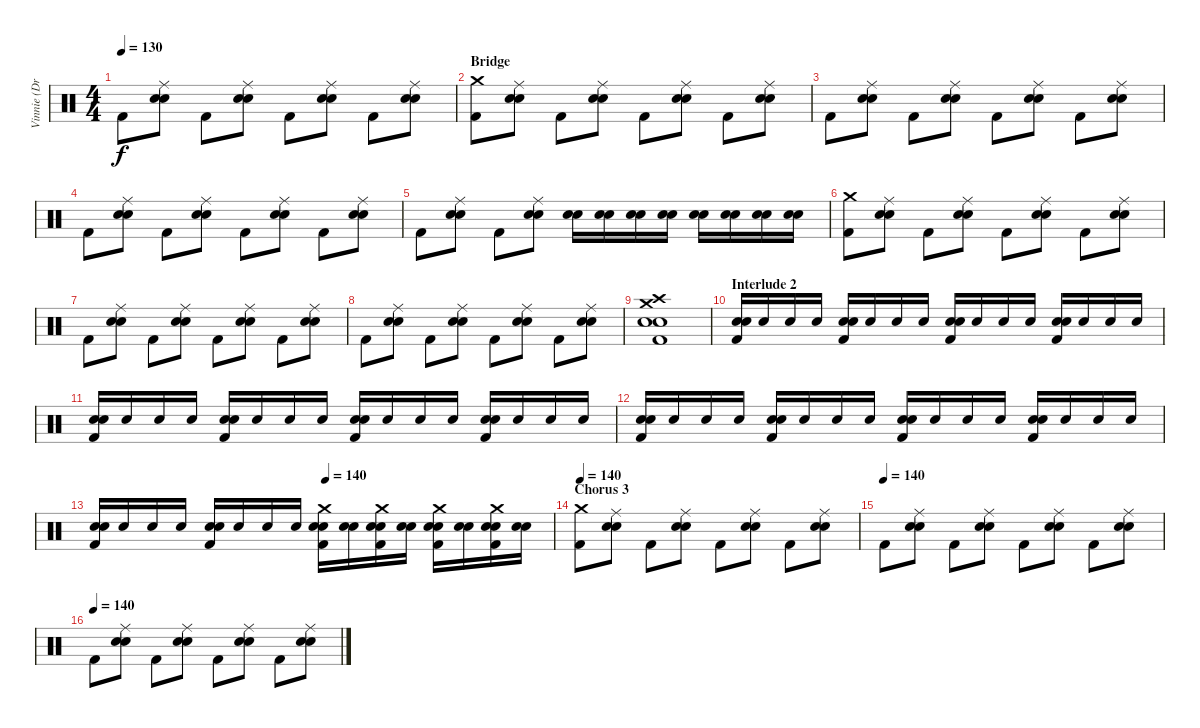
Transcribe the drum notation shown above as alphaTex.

\track ("Vinnie (Drums)" "Vinnie (Dr") {instrument percussion}
\staff {score}
\articulation defaults
\ts (4 4)
\tempo 130
\clef neutral
\ks c "Kick (hit) 2".8{dy f}
("Snare (hit) 2" "Electric Snare (hit)" "Ride (middle)").8 "Kick (hit) 2".8 ("Snare (hit) 2" "Electric Snare (hit)" "Ride (middle)").8 "Kick (hit) 2".8 ("Snare (hit) 2" "Electric Snare (hit)" "Ride (middle)").8 "Kick (hit) 2".8 ("Snare (hit) 2" "Electric Snare (hit)" "Ride (middle)").8 |
\section ("" "Bridge")
("Kick (hit) 2" "Crash medium (hit)").8 ("Snare (hit) 2" "Electric Snare (hit)" "Ride (middle)").8 "Kick (hit) 2".8 ("Snare (hit) 2" "Electric Snare (hit)" "Ride (middle)").8 "Kick (hit) 2".8 ("Snare (hit) 2" "Electric Snare (hit)" "Ride (middle)").8 "Kick (hit) 2".8 ("Snare (hit) 2" "Electric Snare (hit)" "Ride (middle)").8 |
"Kick (hit) 2".8 ("Snare (hit) 2" "Electric Snare (hit)" "Ride (middle)").8 "Kick (hit) 2".8 ("Snare (hit) 2" "Electric Snare (hit)" "Ride (middle)").8 "Kick (hit) 2".8 ("Snare (hit) 2" "Electric Snare (hit)" "Ride (middle)").8 "Kick (hit) 2".8 ("Snare (hit) 2" "Electric Snare (hit)" "Ride (middle)").8 |
"Kick (hit) 2".8 ("Snare (hit) 2" "Electric Snare (hit)" "Ride (middle)").8 "Kick (hit) 2".8 ("Snare (hit) 2" "Electric Snare (hit)" "Ride (middle)").8 "Kick (hit) 2".8 ("Snare (hit) 2" "Electric Snare (hit)" "Ride (middle)").8 "Kick (hit) 2".8 ("Snare (hit) 2" "Electric Snare (hit)" "Ride (middle)").8 |
"Kick (hit) 2".8 ("Snare (hit) 2" "Electric Snare (hit)" "Ride (middle)").8 "Kick (hit) 2".8 ("Snare (hit) 2" "Electric Snare (hit)" "Ride (middle)").8 ("Snare (hit) 2" "Electric Snare (hit)").16 ("Snare (hit) 2" "Electric Snare (hit)").16 ("Snare (hit) 2" "Electric Snare (hit)").16 ("Snare (hit) 2" "Electric Snare (hit)").16 ("Snare (hit) 2" "Electric Snare (hit)").16 ("Snare (hit) 2" "Electric Snare (hit)").16 ("Snare (hit) 2" "Electric Snare (hit)").16 ("Snare (hit) 2" "Electric Snare (hit)").16 |
("Kick (hit) 2" "Crash medium (hit)").8 ("Snare (hit) 2" "Electric Snare (hit)" "Ride (middle)").8 "Kick (hit) 2".8 ("Snare (hit) 2" "Electric Snare (hit)" "Ride (middle)").8 "Kick (hit) 2".8 ("Snare (hit) 2" "Electric Snare (hit)" "Ride (middle)").8 "Kick (hit) 2".8 ("Snare (hit) 2" "Electric Snare (hit)" "Ride (middle)").8 |
"Kick (hit) 2".8 ("Snare (hit) 2" "Electric Snare (hit)" "Ride (middle)").8 "Kick (hit) 2".8 ("Snare (hit) 2" "Electric Snare (hit)" "Ride (middle)").8 "Kick (hit) 2".8 ("Snare (hit) 2" "Electric Snare (hit)" "Ride (middle)").8 "Kick (hit) 2".8 ("Snare (hit) 2" "Electric Snare (hit)" "Ride (middle)").8 |
"Kick (hit) 2".8 ("Snare (hit) 2" "Electric Snare (hit)" "Ride (middle)").8 "Kick (hit) 2".8 ("Snare (hit) 2" "Electric Snare (hit)" "Ride (middle)").8 "Kick (hit) 2".8 ("Snare (hit) 2" "Electric Snare (hit)" "Ride (middle)").8 "Kick (hit) 2".8 ("Snare (hit) 2" "Electric Snare (hit)" "Ride (middle)").8 |
("Kick (hit) 2" "Electric Snare (hit)" "Snare (hit) 2" "Crash high (hit)" "Crash medium (hit)").1 |
\section ("" "Interlude 2")
("Snare (hit) 2" "Electric Snare (hit)" "Kick (hit) 2").16 "Snare (hit) 2".16 "Snare (hit) 2".16 "Snare (hit) 2".16 ("Snare (hit) 2" "Electric Snare (hit)" "Kick (hit) 2").16 "Snare (hit) 2".16 "Snare (hit) 2".16 "Snare (hit) 2".16 ("Snare (hit) 2" "Electric Snare (hit)" "Kick (hit) 2").16 "Snare (hit) 2".16 "Snare (hit) 2".16 "Snare (hit) 2".16 ("Snare (hit) 2" "Electric Snare (hit)" "Kick (hit) 2").16 "Snare (hit) 2".16 "Snare (hit) 2".16 "Snare (hit) 2".16 |
("Snare (hit) 2" "Electric Snare (hit)" "Kick (hit) 2").16 "Snare (hit) 2".16 "Snare (hit) 2".16 "Snare (hit) 2".16 ("Snare (hit) 2" "Electric Snare (hit)" "Kick (hit) 2").16 "Snare (hit) 2".16 "Snare (hit) 2".16 "Snare (hit) 2".16 ("Snare (hit) 2" "Electric Snare (hit)" "Kick (hit) 2").16 "Snare (hit) 2".16 "Snare (hit) 2".16 "Snare (hit) 2".16 ("Snare (hit) 2" "Electric Snare (hit)" "Kick (hit) 2").16 "Snare (hit) 2".16 "Snare (hit) 2".16 "Snare (hit) 2".16 |
("Snare (hit) 2" "Electric Snare (hit)" "Kick (hit) 2").16 "Snare (hit) 2".16 "Snare (hit) 2".16 "Snare (hit) 2".16 ("Snare (hit) 2" "Electric Snare (hit)" "Kick (hit) 2").16 "Snare (hit) 2".16 "Snare (hit) 2".16 "Snare (hit) 2".16 ("Snare (hit) 2" "Electric Snare (hit)" "Kick (hit) 2").16 "Snare (hit) 2".16 "Snare (hit) 2".16 "Snare (hit) 2".16 ("Snare (hit) 2" "Electric Snare (hit)" "Kick (hit) 2").16 "Snare (hit) 2".16 "Snare (hit) 2".16 "Snare (hit) 2".16 |
\tempo (140 0.5)
("Snare (hit) 2" "Electric Snare (hit)" "Kick (hit) 2").16 "Snare (hit) 2".16 "Snare (hit) 2".16 "Snare (hit) 2".16 ("Snare (hit) 2" "Electric Snare (hit)" "Kick (hit) 2").16 "Snare (hit) 2".16 "Snare (hit) 2".16 "Snare (hit) 2".16 ("Snare (hit) 2" "Electric Snare (hit)" "Kick (hit) 2" "Crash medium (hit)").16 ("Snare (hit) 2" "Electric Snare (hit)").16 ("Snare (hit) 2" "Electric Snare (hit)" "Kick (hit) 2" "Crash medium (hit)").16 ("Snare (hit) 2" "Electric Snare (hit)").16 ("Snare (hit) 2" "Electric Snare (hit)" "Kick (hit) 2" "Crash medium (hit)").16 ("Snare (hit) 2" "Electric Snare (hit)").16 ("Snare (hit) 2" "Electric Snare (hit)" "Kick (hit) 2" "Crash medium (hit)").16 ("Snare (hit) 2" "Electric Snare (hit)").16 |
\section ("" "Chorus 3")
\tempo 140
("Kick (hit) 2" "Crash medium (hit)").8 ("Snare (hit) 2" "Electric Snare (hit)" "Ride (middle)").8 "Kick (hit) 2".8 ("Snare (hit) 2" "Electric Snare (hit)" "Ride (middle)").8 "Kick (hit) 2".8 ("Snare (hit) 2" "Electric Snare (hit)" "Ride (middle)").8 "Kick (hit) 2".8 ("Snare (hit) 2" "Electric Snare (hit)" "Ride (middle)").8 |
\tempo (140)
"Kick (hit) 2".8 ("Snare (hit) 2" "Electric Snare (hit)" "Ride (middle)").8 "Kick (hit) 2".8 ("Snare (hit) 2" "Electric Snare (hit)" "Ride (middle)").8 "Kick (hit) 2".8 ("Snare (hit) 2" "Electric Snare (hit)" "Ride (middle)").8 "Kick (hit) 2".8 ("Snare (hit) 2" "Electric Snare (hit)" "Ride (middle)").8 |
\tempo (140)
"Kick (hit) 2".8 ("Snare (hit) 2" "Electric Snare (hit)" "Ride (middle)").8 "Kick (hit) 2".8 ("Snare (hit) 2" "Electric Snare (hit)" "Ride (middle)").8 "Kick (hit) 2".8 ("Snare (hit) 2" "Electric Snare (hit)" "Ride (middle)").8 "Kick (hit) 2".8 ("Snare (hit) 2" "Electric Snare (hit)" "Ride (middle)").8
